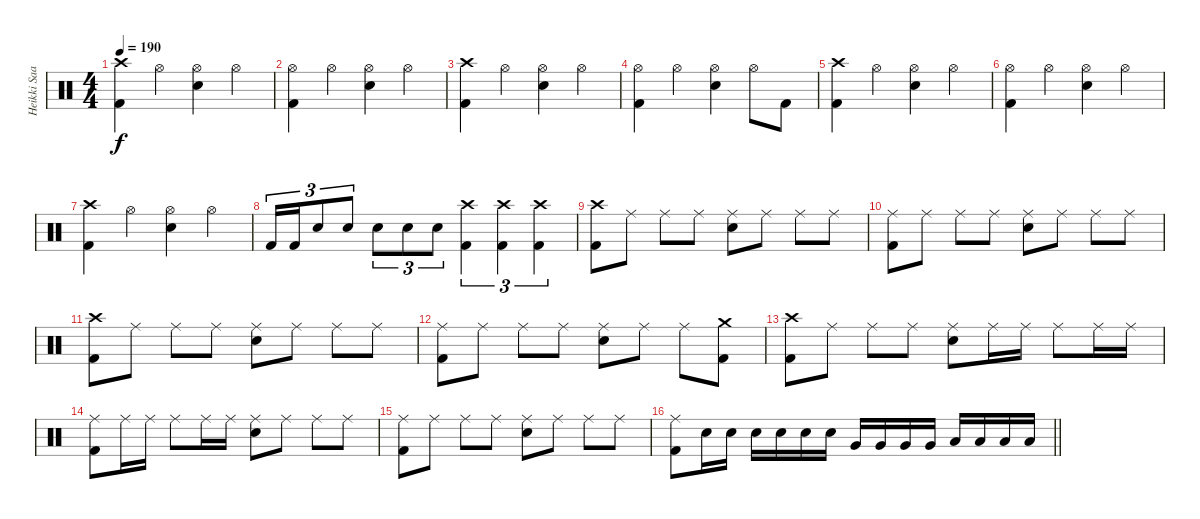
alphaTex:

\track ("Heikki Saari" "Heikki Saa") {instrument percussion}
\staff {score}
\articulation defaults
\ts (4 4)
\tempo 190
\clef neutral
\ks c
("Crash high (hit)" "Kick (hit) 2").4{dy f} "Hi-Hat (open)".4 ("Hi-Hat (open)" "Snare (hit) 2").4 "Hi-Hat (open)".4 |
("Hi-Hat (open)" "Kick (hit) 2").4 "Hi-Hat (open)".4 ("Hi-Hat (open)" "Snare (hit) 2").4 "Hi-Hat (open)".4 |
("Crash high (hit)" "Kick (hit) 2").4 "Hi-Hat (open)".4 ("Hi-Hat (open)" "Snare (hit) 2").4 "Hi-Hat (open)".4 |
("Hi-Hat (open)" "Kick (hit) 2").4 "Hi-Hat (open)".4 ("Hi-Hat (open)" "Snare (hit) 2").4 "Hi-Hat (open)".8 "Kick (hit) 2".8 |
("Crash high (hit)" "Kick (hit) 2").4 "Hi-Hat (open)".4 ("Hi-Hat (open)" "Snare (hit) 2").4 "Hi-Hat (open)".4 |
("Hi-Hat (open)" "Kick (hit) 2").4 "Hi-Hat (open)".4 ("Hi-Hat (open)" "Snare (hit) 2").4 "Hi-Hat (open)".4 |
("Crash high (hit)" "Kick (hit) 2").4 "Hi-Hat (open)".4 ("Hi-Hat (open)" "Snare (hit) 2").4 "Hi-Hat (open)".4 |
"Kick (hit) 2".16{tu (3 2)} "Kick (hit) 2".16{tu (3 2)} "Snare (hit) 2".8{tu (3 2)} "Snare (hit) 2".8{tu (3 2)} "Snare (hit) 2".8{tu (3 2)} "Snare (hit) 2".8{tu (3 2)} "Snare (hit) 2".8{tu (3 2)} ("Crash high (hit)" "Kick (hit) 2").4{tu (3 2)} ("Crash high (hit)" "Kick (hit) 2").4{tu (3 2)} ("Crash high (hit)" "Kick (hit) 2").4{tu (3 2)} |
("Crash high (hit)" "Kick (hit) 2").8 "Ride (middle)".8 "Ride (middle)".8 "Ride (middle)".8 ("Ride (middle)" "Snare (hit) 2").8 "Ride (middle)".8 "Ride (middle)".8 "Ride (middle)".8 |
("Ride (middle)" "Kick (hit) 2").8 "Ride (middle)".8 "Ride (middle)".8 "Ride (middle)".8 ("Ride (middle)" "Snare (hit) 2").8 "Ride (middle)".8 "Ride (middle)".8 "Ride (middle)".8 |
("Crash high (hit)" "Kick (hit) 2").8 "Ride (middle)".8 "Ride (middle)".8 "Ride (middle)".8 ("Ride (middle)" "Snare (hit) 2").8 "Ride (middle)".8 "Ride (middle)".8 "Ride (middle)".8 |
("Ride (middle)" "Kick (hit) 2").8 "Ride (middle)".8 "Ride (middle)".8 "Ride (middle)".8 ("Ride (middle)" "Snare (hit) 2").8 "Ride (middle)".8 "Ride (middle)".8 ("Crash medium (hit)" "Kick (hit) 2").8 |
("Crash high (hit)" "Kick (hit) 2").8 "Ride (middle)".8 "Ride (middle)".8 "Ride (middle)".8 ("Ride (middle)" "Snare (hit) 2").8 "Ride (middle)".16 "Ride (middle)".16 "Ride (middle)".8 "Ride (middle)".16 "Ride (middle)".16 |
("Ride (middle)" "Kick (hit) 2").8 "Ride (middle)".16 "Ride (middle)".16 "Ride (middle)".8 "Ride (middle)".16 "Ride (middle)".16 ("Ride (middle)" "Snare (hit) 2").8 "Ride (middle)".8 "Ride (middle)".8 "Ride (middle)".8 |
("Ride (middle)" "Kick (hit) 2").8 "Ride (middle)".8 "Ride (middle)".8 "Ride (middle)".8 ("Ride (middle)" "Snare (hit) 2").8 "Ride (middle)".8 "Ride (middle)".8 "Ride (middle)".8 |
\barLineRight lightlight
("Ride (middle)" "Kick (hit) 2").8 "Snare (hit) 2".16 "Snare (hit) 2".16 "Snare (hit) 2".16 "Snare (hit) 2".16 "Snare (hit) 2".16 "Snare (hit) 2".16 "Very Low Tom (hit)".16 "Very Low Tom (hit)".16 "Very Low Tom (hit)".16 "Very Low Tom (hit)".16 "Low Floor Tom (hit)".16 "Low Floor Tom (hit)".16 "Low Floor Tom (hit)".16 "Low Floor Tom (hit)".16
